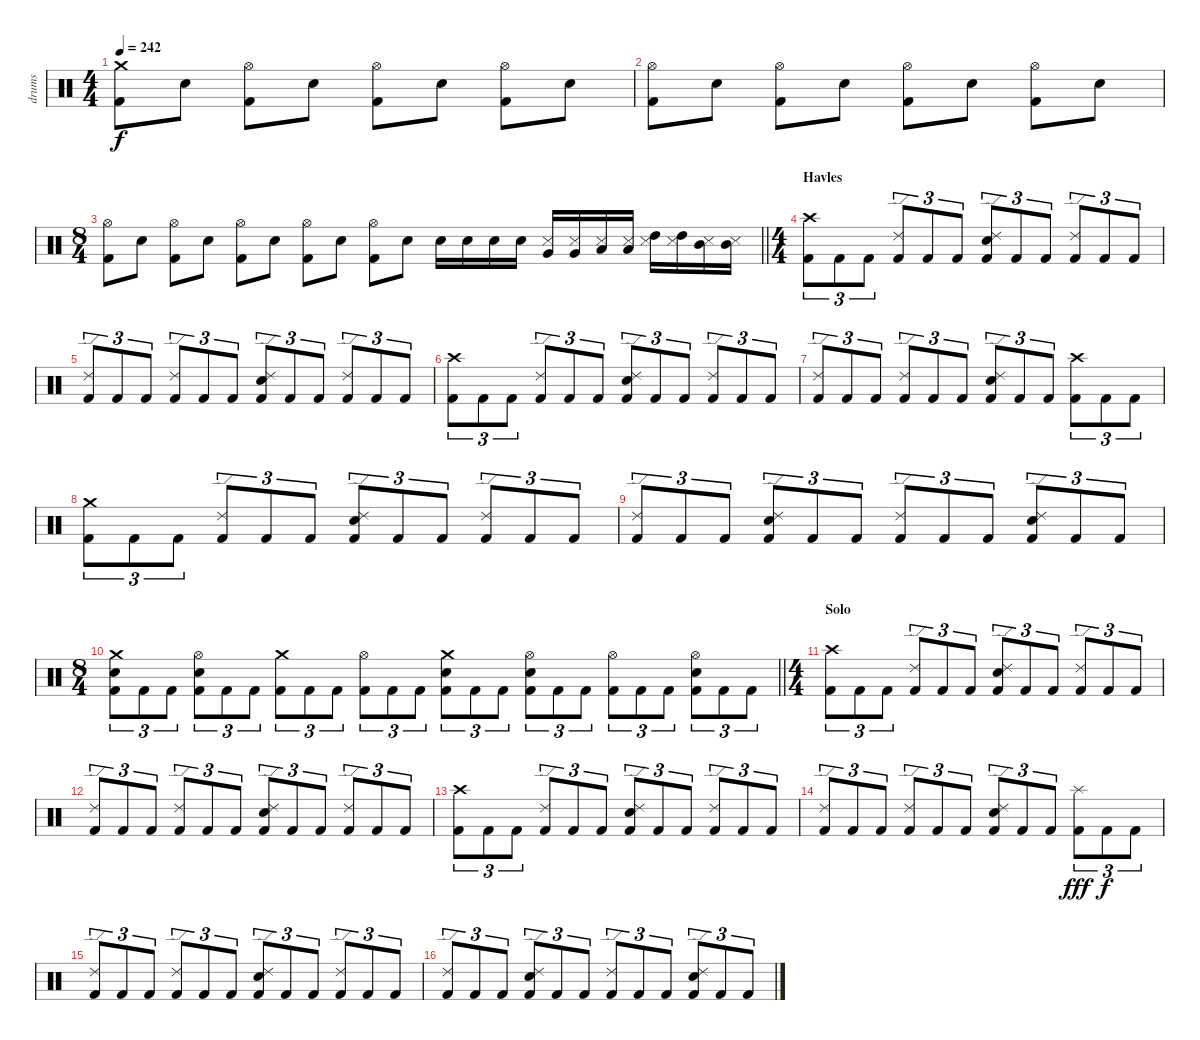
\track ("drums" "drums") {instrument percussion}
\staff {score}
\articulation defaults
\ts (4 4)
\tempo 242
\clef neutral
\ks c
("Crash medium (hit)" "Kick (hit) 2").8{dy f} "Electric Snare (hit)".8 ("Hi-Hat (open)" "Kick (hit) 2").8 "Electric Snare (hit)".8 ("Hi-Hat (open)" "Kick (hit) 2").8 "Electric Snare (hit)".8 ("Hi-Hat (open)" "Kick (hit) 2").8 "Electric Snare (hit)".8 |
("Hi-Hat (open)" "Kick (hit) 2").8 "Electric Snare (hit)".8 ("Hi-Hat (open)" "Kick (hit) 2").8 "Electric Snare (hit)".8 ("Hi-Hat (open)" "Kick (hit) 2").8 "Electric Snare (hit)".8 ("Hi-Hat (open)" "Kick (hit) 2").8 "Electric Snare (hit)".8 |
\ts (8 4)
\barLineRight lightlight
("Hi-Hat (open)" "Kick (hit) 2").8 "Electric Snare (hit)".8 ("Hi-Hat (open)" "Kick (hit) 2").8 "Electric Snare (hit)".8 ("Hi-Hat (open)" "Kick (hit) 2").8 "Electric Snare (hit)".8 ("Hi-Hat (open)" "Kick (hit) 2").8 "Electric Snare (hit)".8 ("Hi-Hat (open)" "Kick (hit) 2").8 "Electric Snare (hit)".8 "Electric Snare (hit)".16 "Electric Snare (hit)".16 "Electric Snare (hit)".16 "Electric Snare (hit)".16 ("Metronome (hit)" "Very Low Tom (hit)").16 ("Metronome (hit)" "Very Low Tom (hit)").16 ("Metronome (hit)" "Low Tom (hit)").16 ("Metronome (hit)" "Low Tom (hit)").16 ("Metronome (hit)" "High Tom (hit)").16 ("Metronome (hit)" "High Tom (hit)").16 ("Metronome (hit)" "Mid Tom (hit)").16 ("Metronome (hit)" "Mid Tom (hit)").16 |
\ts (4 4)
\section ("" "Havles")
("Crash high (hit)" "Kick (hit) 2").8{tu (3 2)} "Kick (hit) 2".8{tu (3 2)} "Kick (hit) 2".8{tu (3 2)} ("Ride (edge) 2" "Kick (hit) 2").8{tu (3 2)} "Kick (hit) 2".8{tu (3 2)} "Kick (hit) 2".8{tu (3 2)} ("Ride (edge) 2" "Electric Snare (hit)" "Kick (hit) 2").8{tu (3 2)} "Kick (hit) 2".8{tu (3 2)} "Kick (hit) 2".8{tu (3 2)} ("Ride (edge) 2" "Kick (hit) 2").8{tu (3 2)} "Kick (hit) 2".8{tu (3 2)} "Kick (hit) 2".8{tu (3 2)} |
("Ride (edge) 2" "Kick (hit) 2").8{tu (3 2)} "Kick (hit) 2".8{tu (3 2)} "Kick (hit) 2".8{tu (3 2)} ("Ride (edge) 2" "Kick (hit) 2").8{tu (3 2)} "Kick (hit) 2".8{tu (3 2)} "Kick (hit) 2".8{tu (3 2)} ("Ride (edge) 2" "Electric Snare (hit)" "Kick (hit) 2").8{tu (3 2)} "Kick (hit) 2".8{tu (3 2)} "Kick (hit) 2".8{tu (3 2)} ("Ride (edge) 2" "Kick (hit) 2").8{tu (3 2)} "Kick (hit) 2".8{tu (3 2)} "Kick (hit) 2".8{tu (3 2)} |
("Crash high (hit)" "Kick (hit) 2").8{tu (3 2)} "Kick (hit) 2".8{tu (3 2)} "Kick (hit) 2".8{tu (3 2)} ("Ride (edge) 2" "Kick (hit) 2").8{tu (3 2)} "Kick (hit) 2".8{tu (3 2)} "Kick (hit) 2".8{tu (3 2)} ("Ride (edge) 2" "Electric Snare (hit)" "Kick (hit) 2").8{tu (3 2)} "Kick (hit) 2".8{tu (3 2)} "Kick (hit) 2".8{tu (3 2)} ("Ride (edge) 2" "Kick (hit) 2").8{tu (3 2)} "Kick (hit) 2".8{tu (3 2)} "Kick (hit) 2".8{tu (3 2)} |
("Ride (edge) 2" "Kick (hit) 2").8{tu (3 2)} "Kick (hit) 2".8{tu (3 2)} "Kick (hit) 2".8{tu (3 2)} ("Ride (edge) 2" "Kick (hit) 2").8{tu (3 2)} "Kick (hit) 2".8{tu (3 2)} "Kick (hit) 2".8{tu (3 2)} ("Ride (edge) 2" "Electric Snare (hit)" "Kick (hit) 2").8{tu (3 2)} "Kick (hit) 2".8{tu (3 2)} "Kick (hit) 2".8{tu (3 2)} ("Crash high (hit)" "Kick (hit) 2").8{tu (3 2)} "Kick (hit) 2".8{tu (3 2)} "Kick (hit) 2".8{tu (3 2)} |
("Crash medium (hit)" "Kick (hit) 2").8{tu (3 2)} "Kick (hit) 2".8{tu (3 2)} "Kick (hit) 2".8{tu (3 2)} ("Ride (edge) 2" "Kick (hit) 2").8{tu (3 2)} "Kick (hit) 2".8{tu (3 2)} "Kick (hit) 2".8{tu (3 2)} ("Ride (edge) 2" "Electric Snare (hit)" "Kick (hit) 2").8{tu (3 2)} "Kick (hit) 2".8{tu (3 2)} "Kick (hit) 2".8{tu (3 2)} ("Ride (edge) 2" "Kick (hit) 2").8{tu (3 2)} "Kick (hit) 2".8{tu (3 2)} "Kick (hit) 2".8{tu (3 2)} |
("Ride (edge) 2" "Kick (hit) 2").8{tu (3 2)} "Kick (hit) 2".8{tu (3 2)} "Kick (hit) 2".8{tu (3 2)} ("Ride (edge) 2" "Electric Snare (hit)" "Kick (hit) 2").8{tu (3 2)} "Kick (hit) 2".8{tu (3 2)} "Kick (hit) 2".8{tu (3 2)} ("Ride (edge) 2" "Kick (hit) 2").8{tu (3 2)} "Kick (hit) 2".8{tu (3 2)} "Kick (hit) 2".8{tu (3 2)} ("Ride (edge) 2" "Electric Snare (hit)" "Kick (hit) 2").8{tu (3 2)} "Kick (hit) 2".8{tu (3 2)} "Kick (hit) 2".8{tu (3 2)} |
\ts (8 4)
\barLineRight lightlight
("Crash medium (hit)" "Electric Snare (hit)" "Kick (hit) 2").8{tu (3 2)} "Kick (hit) 2".8{tu (3 2)} "Kick (hit) 2".8{tu (3 2)} ("Hi-Hat (open)" "Electric Snare (hit)" "Kick (hit) 2").8{tu (3 2)} "Kick (hit) 2".8{tu (3 2)} "Kick (hit) 2".8{tu (3 2)} ("Crash medium (hit)" "Kick (hit) 2").8{tu (3 2)} "Kick (hit) 2".8{tu (3 2)} "Kick (hit) 2".8{tu (3 2)} ("Hi-Hat (open)" "Kick (hit) 2").8{tu (3 2)} "Kick (hit) 2".8{tu (3 2)} "Kick (hit) 2".8{tu (3 2)} ("Crash medium (hit)" "Electric Snare (hit)" "Kick (hit) 2").8{tu (3 2)} "Kick (hit) 2".8{tu (3 2)} "Kick (hit) 2".8{tu (3 2)} ("Hi-Hat (open)" "Electric Snare (hit)" "Kick (hit) 2").8{tu (3 2)} "Kick (hit) 2".8{tu (3 2)} "Kick (hit) 2".8{tu (3 2)} ("Hi-Hat (open)" "Kick (hit) 2").8{tu (3 2)} "Kick (hit) 2".8{tu (3 2)} "Kick (hit) 2".8{tu (3 2)} ("Hi-Hat (open)" "Electric Snare (hit)" "Kick (hit) 2").8{tu (3 2)} "Kick (hit) 2".8{tu (3 2)} "Kick (hit) 2".8{tu (3 2)} |
\ts (4 4)
\section ("" "Solo")
("Crash high (hit)" "Kick (hit) 2").8{tu (3 2)} "Kick (hit) 2".8{tu (3 2)} "Kick (hit) 2".8{tu (3 2)} ("Ride (edge) 2" "Kick (hit) 2").8{tu (3 2)} "Kick (hit) 2".8{tu (3 2)} "Kick (hit) 2".8{tu (3 2)} ("Ride (edge) 2" "Electric Snare (hit)" "Kick (hit) 2").8{tu (3 2)} "Kick (hit) 2".8{tu (3 2)} "Kick (hit) 2".8{tu (3 2)} ("Ride (edge) 2" "Kick (hit) 2").8{tu (3 2)} "Kick (hit) 2".8{tu (3 2)} "Kick (hit) 2".8{tu (3 2)} |
("Ride (edge) 2" "Kick (hit) 2").8{tu (3 2)} "Kick (hit) 2".8{tu (3 2)} "Kick (hit) 2".8{tu (3 2)} ("Ride (edge) 2" "Kick (hit) 2").8{tu (3 2)} "Kick (hit) 2".8{tu (3 2)} "Kick (hit) 2".8{tu (3 2)} ("Ride (edge) 2" "Electric Snare (hit)" "Kick (hit) 2").8{tu (3 2)} "Kick (hit) 2".8{tu (3 2)} "Kick (hit) 2".8{tu (3 2)} ("Ride (edge) 2" "Kick (hit) 2").8{tu (3 2)} "Kick (hit) 2".8{tu (3 2)} "Kick (hit) 2".8{tu (3 2)} |
("Crash high (hit)" "Kick (hit) 2").8{tu (3 2)} "Kick (hit) 2".8{tu (3 2)} "Kick (hit) 2".8{tu (3 2)} ("Ride (edge) 2" "Kick (hit) 2").8{tu (3 2)} "Kick (hit) 2".8{tu (3 2)} "Kick (hit) 2".8{tu (3 2)} ("Ride (edge) 2" "Electric Snare (hit)" "Kick (hit) 2").8{tu (3 2)} "Kick (hit) 2".8{tu (3 2)} "Kick (hit) 2".8{tu (3 2)} ("Ride (edge) 2" "Kick (hit) 2").8{tu (3 2)} "Kick (hit) 2".8{tu (3 2)} "Kick (hit) 2".8{tu (3 2)} |
("Ride (edge) 2" "Kick (hit) 2").8{tu (3 2)} "Kick (hit) 2".8{tu (3 2)} "Kick (hit) 2".8{tu (3 2)} ("Ride (edge) 2" "Kick (hit) 2").8{tu (3 2)} "Kick (hit) 2".8{tu (3 2)} "Kick (hit) 2".8{tu (3 2)} ("Ride (edge) 2" "Electric Snare (hit)" "Kick (hit) 2").8{tu (3 2)} "Kick (hit) 2".8{tu (3 2)} "Kick (hit) 2".8{tu (3 2)} ("Splash (hit)" "Kick (hit) 2").8{tu (3 2) dy fff} "Kick (hit) 2".8{tu (3 2) dy f} "Kick (hit) 2".8{tu (3 2)} |
("Ride (edge) 2" "Kick (hit) 2").8{tu (3 2)} "Kick (hit) 2".8{tu (3 2)} "Kick (hit) 2".8{tu (3 2)} ("Ride (edge) 2" "Kick (hit) 2").8{tu (3 2)} "Kick (hit) 2".8{tu (3 2)} "Kick (hit) 2".8{tu (3 2)} ("Ride (edge) 2" "Electric Snare (hit)" "Kick (hit) 2").8{tu (3 2)} "Kick (hit) 2".8{tu (3 2)} "Kick (hit) 2".8{tu (3 2)} ("Ride (edge) 2" "Kick (hit) 2").8{tu (3 2)} "Kick (hit) 2".8{tu (3 2)} "Kick (hit) 2".8{tu (3 2)} |
("Ride (edge) 2" "Kick (hit) 2").8{tu (3 2)} "Kick (hit) 2".8{tu (3 2)} "Kick (hit) 2".8{tu (3 2)} ("Ride (edge) 2" "Electric Snare (hit)" "Kick (hit) 2").8{tu (3 2)} "Kick (hit) 2".8{tu (3 2)} "Kick (hit) 2".8{tu (3 2)} ("Ride (edge) 2" "Kick (hit) 2").8{tu (3 2)} "Kick (hit) 2".8{tu (3 2)} "Kick (hit) 2".8{tu (3 2)} ("Ride (edge) 2" "Electric Snare (hit)" "Kick (hit) 2").8{tu (3 2)} "Kick (hit) 2".8{tu (3 2)} "Kick (hit) 2".8{tu (3 2)}
